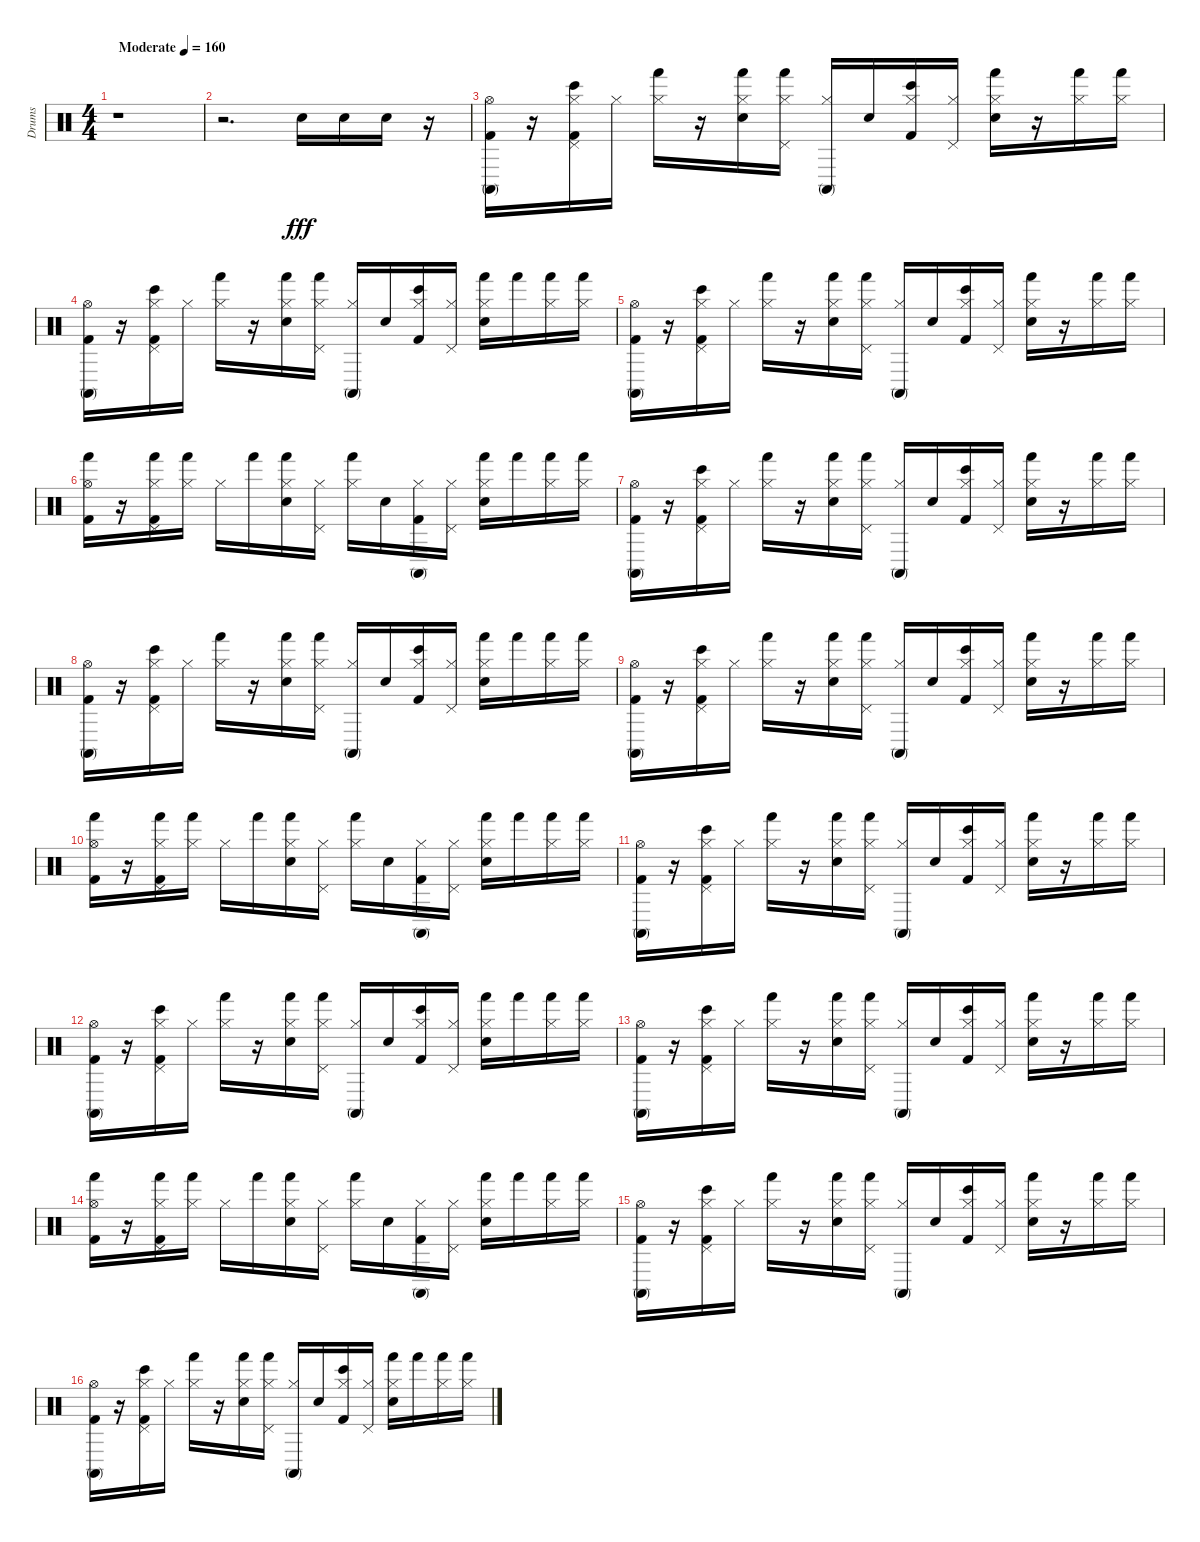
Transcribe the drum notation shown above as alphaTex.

\track ("Drums" "Drums") {instrument percussion}
\staff {score}
\articulation defaults
\ts (4 4)
\tempo (160 "Moderate")
\clef neutral
\ks c
r.1{dy fff} |
r.2{d} "Snare (hit) 2".16 "Snare (hit) 2".16 "Snare (hit) 2".16 r.16 |
("Kick (hit) 2" "Conga high (mute)" "Hi-Hat (open)").16 r.16 ("Hi-Hat (closed)" "Kick (hit) 2" "Bongo High (hit)" "Pedal Hi-Hat (hit)").16 "Hi-Hat (closed)".16 ("Hand (hit)" "Hi-Hat (closed)").16 r.16 ("Hi-Hat (closed)" "Hand (hit)" "Electric Snare (hit)").16 ("Hand (hit)" "Pedal Hi-Hat (hit)" "Hi-Hat (closed)").16 ("Conga high (mute)" "Hi-Hat (closed)").16 "Electric Snare (hit)".16 ("Hi-Hat (closed)" "Kick (hit) 2" "Bongo High (hit)").16 ("Pedal Hi-Hat (hit)" "Hi-Hat (closed)").16 ("Hi-Hat (closed)" "Electric Snare (hit)" "Hand (hit)").16 r.16 ("Hand (hit)" "Hi-Hat (closed)").16 ("Hand (hit)" "Hi-Hat (closed)").16 |
("Conga high (mute)" "Kick (hit) 2" "Hi-Hat (open)").16 r.16 ("Bongo High (hit)" "Pedal Hi-Hat (hit)" "Kick (hit) 2" "Hi-Hat (closed)").16 "Hi-Hat (closed)".16 ("Hi-Hat (closed)" "Hand (hit)").16 r.16 ("Hand (hit)" "Hi-Hat (closed)" "Electric Snare (hit)").16 ("Hi-Hat (closed)" "Pedal Hi-Hat (hit)" "Hand (hit)").16 ("Hi-Hat (closed)" "Conga high (mute)").16 "Electric Snare (hit)".16 ("Hi-Hat (closed)" "Kick (hit) 2" "Bongo High (hit)").16 ("Pedal Hi-Hat (hit)" "Hi-Hat (closed)").16 ("Electric Snare (hit)" "Hand (hit)" "Hi-Hat (closed)").16 "Hand (hit)".16 ("Hi-Hat (closed)" "Hand (hit)").16 ("Hi-Hat (closed)" "Hand (hit)").16 |
("Hi-Hat (open)" "Kick (hit) 2" "Conga high (mute)").16 r.16 ("Kick (hit) 2" "Pedal Hi-Hat (hit)" "Bongo High (hit)" "Hi-Hat (closed)").16 "Hi-Hat (closed)".16 ("Hi-Hat (closed)" "Hand (hit)").16 r.16 ("Hand (hit)" "Electric Snare (hit)" "Hi-Hat (closed)").16 ("Hand (hit)" "Pedal Hi-Hat (hit)" "Hi-Hat (closed)").16 ("Conga high (mute)" "Hi-Hat (closed)").16 "Electric Snare (hit)".16 ("Kick (hit) 2" "Hi-Hat (closed)" "Bongo High (hit)").16 ("Hi-Hat (closed)" "Pedal Hi-Hat (hit)").16 ("Electric Snare (hit)" "Hi-Hat (closed)" "Hand (hit)").16 r.16 ("Hand (hit)" "Hi-Hat (closed)").16 ("Hand (hit)" "Hi-Hat (closed)").16 |
("Hand (hit)" "Kick (hit) 2" "Hi-Hat (open)").16 r.16 ("Hand (hit)" "Hi-Hat (closed)" "Pedal Hi-Hat (hit)" "Kick (hit) 2").16 ("Hand (hit)" "Hi-Hat (closed)").16 "Hi-Hat (closed)".16 "Hand (hit)".16 ("Electric Snare (hit)" "Hi-Hat (closed)" "Hand (hit)").16 ("Hi-Hat (closed)" "Pedal Hi-Hat (hit)").16 ("Hand (hit)" "Hi-Hat (closed)").16 "Electric Snare (hit)".16 ("Hi-Hat (closed)" "Conga high (mute)" "Kick (hit) 2").16 ("Pedal Hi-Hat (hit)" "Hi-Hat (closed)").16 ("Electric Snare (hit)" "Hi-Hat (closed)" "Hand (hit)").16 "Hand (hit)".16 ("Hand (hit)" "Hi-Hat (closed)").16 ("Hi-Hat (closed)" "Hand (hit)").16 |
("Conga high (mute)" "Kick (hit) 2" "Hi-Hat (open)").16 r.16 ("Pedal Hi-Hat (hit)" "Kick (hit) 2" "Bongo High (hit)" "Hi-Hat (closed)").16 "Hi-Hat (closed)".16 ("Hand (hit)" "Hi-Hat (closed)").16 r.16 ("Hi-Hat (closed)" "Electric Snare (hit)" "Hand (hit)").16 ("Hi-Hat (closed)" "Pedal Hi-Hat (hit)" "Hand (hit)").16 ("Conga high (mute)" "Hi-Hat (closed)").16 "Electric Snare (hit)".16 ("Hi-Hat (closed)" "Bongo High (hit)" "Kick (hit) 2").16 ("Hi-Hat (closed)" "Pedal Hi-Hat (hit)").16 ("Hi-Hat (closed)" "Electric Snare (hit)" "Hand (hit)").16 r.16 ("Hi-Hat (closed)" "Hand (hit)").16 ("Hand (hit)" "Hi-Hat (closed)").16 |
("Kick (hit) 2" "Hi-Hat (open)" "Conga high (mute)").16 r.16 ("Pedal Hi-Hat (hit)" "Kick (hit) 2" "Hi-Hat (closed)" "Bongo High (hit)").16 "Hi-Hat (closed)".16 ("Hi-Hat (closed)" "Hand (hit)").16 r.16 ("Hand (hit)" "Hi-Hat (closed)" "Electric Snare (hit)").16 ("Pedal Hi-Hat (hit)" "Hi-Hat (closed)" "Hand (hit)").16 ("Hi-Hat (closed)" "Conga high (mute)").16 "Electric Snare (hit)".16 ("Bongo High (hit)" "Kick (hit) 2" "Hi-Hat (closed)").16 ("Pedal Hi-Hat (hit)" "Hi-Hat (closed)").16 ("Hi-Hat (closed)" "Hand (hit)" "Electric Snare (hit)").16 "Hand (hit)".16 ("Hi-Hat (closed)" "Hand (hit)").16 ("Hi-Hat (closed)" "Hand (hit)").16 |
("Hi-Hat (open)" "Conga high (mute)" "Kick (hit) 2").16 r.16 ("Hi-Hat (closed)" "Pedal Hi-Hat (hit)" "Bongo High (hit)" "Kick (hit) 2").16 "Hi-Hat (closed)".16 ("Hi-Hat (closed)" "Hand (hit)").16 r.16 ("Hand (hit)" "Electric Snare (hit)" "Hi-Hat (closed)").16 ("Pedal Hi-Hat (hit)" "Hi-Hat (closed)" "Hand (hit)").16 ("Hi-Hat (closed)" "Conga high (mute)").16 "Electric Snare (hit)".16 ("Bongo High (hit)" "Hi-Hat (closed)" "Kick (hit) 2").16 ("Pedal Hi-Hat (hit)" "Hi-Hat (closed)").16 ("Electric Snare (hit)" "Hi-Hat (closed)" "Hand (hit)").16 r.16 ("Hand (hit)" "Hi-Hat (closed)").16 ("Hand (hit)" "Hi-Hat (closed)").16 |
("Kick (hit) 2" "Hand (hit)" "Hi-Hat (open)").16 r.16 ("Pedal Hi-Hat (hit)" "Kick (hit) 2" "Hi-Hat (closed)" "Hand (hit)").16 ("Hand (hit)" "Hi-Hat (closed)").16 "Hi-Hat (closed)".16 "Hand (hit)".16 ("Hand (hit)" "Electric Snare (hit)" "Hi-Hat (closed)").16 ("Pedal Hi-Hat (hit)" "Hi-Hat (closed)").16 ("Hi-Hat (closed)" "Hand (hit)").16 "Electric Snare (hit)".16 ("Kick (hit) 2" "Conga high (mute)" "Hi-Hat (closed)").16 ("Hi-Hat (closed)" "Pedal Hi-Hat (hit)").16 ("Electric Snare (hit)" "Hi-Hat (closed)" "Hand (hit)").16 "Hand (hit)".16 ("Hand (hit)" "Hi-Hat (closed)").16 ("Hi-Hat (closed)" "Hand (hit)").16 |
("Kick (hit) 2" "Conga high (mute)" "Hi-Hat (open)").16 r.16 ("Kick (hit) 2" "Bongo High (hit)" "Hi-Hat (closed)" "Pedal Hi-Hat (hit)").16 "Hi-Hat (closed)".16 ("Hand (hit)" "Hi-Hat (closed)").16 r.16 ("Hi-Hat (closed)" "Hand (hit)" "Electric Snare (hit)").16 ("Hand (hit)" "Hi-Hat (closed)" "Pedal Hi-Hat (hit)").16 ("Hi-Hat (closed)" "Conga high (mute)").16 "Electric Snare (hit)".16 ("Bongo High (hit)" "Kick (hit) 2" "Hi-Hat (closed)").16 ("Hi-Hat (closed)" "Pedal Hi-Hat (hit)").16 ("Hand (hit)" "Hi-Hat (closed)" "Electric Snare (hit)").16 r.16 ("Hi-Hat (closed)" "Hand (hit)").16 ("Hi-Hat (closed)" "Hand (hit)").16 |
("Kick (hit) 2" "Hi-Hat (open)" "Conga high (mute)").16 r.16 ("Kick (hit) 2" "Pedal Hi-Hat (hit)" "Bongo High (hit)" "Hi-Hat (closed)").16 "Hi-Hat (closed)".16 ("Hand (hit)" "Hi-Hat (closed)").16 r.16 ("Hand (hit)" "Electric Snare (hit)" "Hi-Hat (closed)").16 ("Pedal Hi-Hat (hit)" "Hand (hit)" "Hi-Hat (closed)").16 ("Hi-Hat (closed)" "Conga high (mute)").16 "Electric Snare (hit)".16 ("Bongo High (hit)" "Kick (hit) 2" "Hi-Hat (closed)").16 ("Hi-Hat (closed)" "Pedal Hi-Hat (hit)").16 ("Hand (hit)" "Electric Snare (hit)" "Hi-Hat (closed)").16 "Hand (hit)".16 ("Hand (hit)" "Hi-Hat (closed)").16 ("Hi-Hat (closed)" "Hand (hit)").16 |
("Kick (hit) 2" "Hi-Hat (open)" "Conga high (mute)").16 r.16 ("Kick (hit) 2" "Hi-Hat (closed)" "Bongo High (hit)" "Pedal Hi-Hat (hit)").16 "Hi-Hat (closed)".16 ("Hi-Hat (closed)" "Hand (hit)").16 r.16 ("Hand (hit)" "Electric Snare (hit)" "Hi-Hat (closed)").16 ("Hi-Hat (closed)" "Hand (hit)" "Pedal Hi-Hat (hit)").16 ("Hi-Hat (closed)" "Conga high (mute)").16 "Electric Snare (hit)".16 ("Bongo High (hit)" "Hi-Hat (closed)" "Kick (hit) 2").16 ("Hi-Hat (closed)" "Pedal Hi-Hat (hit)").16 ("Electric Snare (hit)" "Hi-Hat (closed)" "Hand (hit)").16 r.16 ("Hi-Hat (closed)" "Hand (hit)").16 ("Hi-Hat (closed)" "Hand (hit)").16 |
("Hand (hit)" "Hi-Hat (open)" "Kick (hit) 2").16 r.16 ("Kick (hit) 2" "Pedal Hi-Hat (hit)" "Hand (hit)" "Hi-Hat (closed)").16 ("Hi-Hat (closed)" "Hand (hit)").16 "Hi-Hat (closed)".16 "Hand (hit)".16 ("Electric Snare (hit)" "Hand (hit)" "Hi-Hat (closed)").16 ("Hi-Hat (closed)" "Pedal Hi-Hat (hit)").16 ("Hi-Hat (closed)" "Hand (hit)").16 "Electric Snare (hit)".16 ("Kick (hit) 2" "Conga high (mute)" "Hi-Hat (closed)").16 ("Pedal Hi-Hat (hit)" "Hi-Hat (closed)").16 ("Hi-Hat (closed)" "Electric Snare (hit)" "Hand (hit)").16 "Hand (hit)".16 ("Hand (hit)" "Hi-Hat (closed)").16 ("Hi-Hat (closed)" "Hand (hit)").16 |
("Kick (hit) 2" "Hi-Hat (open)" "Conga high (mute)").16 r.16 ("Bongo High (hit)" "Hi-Hat (closed)" "Kick (hit) 2" "Pedal Hi-Hat (hit)").16 "Hi-Hat (closed)".16 ("Hi-Hat (closed)" "Hand (hit)").16 r.16 ("Hand (hit)" "Electric Snare (hit)" "Hi-Hat (closed)").16 ("Pedal Hi-Hat (hit)" "Hi-Hat (closed)" "Hand (hit)").16 ("Conga high (mute)" "Hi-Hat (closed)").16 "Electric Snare (hit)".16 ("Bongo High (hit)" "Hi-Hat (closed)" "Kick (hit) 2").16 ("Pedal Hi-Hat (hit)" "Hi-Hat (closed)").16 ("Electric Snare (hit)" "Hand (hit)" "Hi-Hat (closed)").16 r.16 ("Hi-Hat (closed)" "Hand (hit)").16 ("Hand (hit)" "Hi-Hat (closed)").16 |
("Conga high (mute)" "Hi-Hat (open)" "Kick (hit) 2").16 r.16 ("Bongo High (hit)" "Pedal Hi-Hat (hit)" "Kick (hit) 2" "Hi-Hat (closed)").16 "Hi-Hat (closed)".16 ("Hand (hit)" "Hi-Hat (closed)").16 r.16 ("Electric Snare (hit)" "Hi-Hat (closed)" "Hand (hit)").16 ("Pedal Hi-Hat (hit)" "Hi-Hat (closed)" "Hand (hit)").16 ("Hi-Hat (closed)" "Conga high (mute)").16 "Electric Snare (hit)".16 ("Hi-Hat (closed)" "Kick (hit) 2" "Bongo High (hit)").16 ("Pedal Hi-Hat (hit)" "Hi-Hat (closed)").16 ("Hi-Hat (closed)" "Hand (hit)" "Electric Snare (hit)").16 "Hand (hit)".16 ("Hi-Hat (closed)" "Hand (hit)").16 ("Hi-Hat (closed)" "Hand (hit)").16
